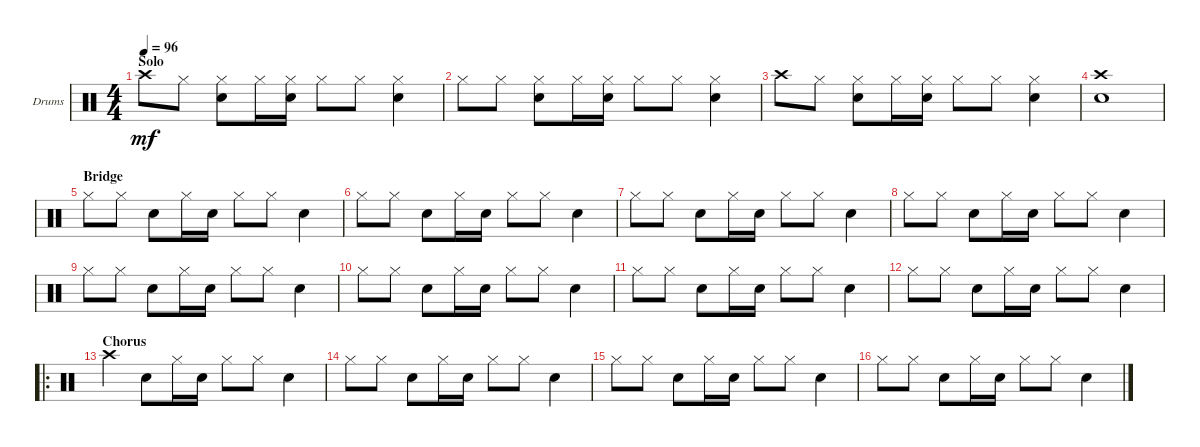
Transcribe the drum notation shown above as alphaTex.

\bracketExtendMode groupsimilarinstruments
\firstSystemTrackNameOrientation horizontal
\otherSystemsTrackNameOrientation horizontal
\track ("Drumkit" "Drums") {instrument percussion}
\staff {score}
\articulation defaults
\ts (4 4)
\section ("" "Solo")
\tempo 96
\clef neutral
\ks c "Crash high (hit)".8{dy mf} "Hi-Hat (closed)".8
("Snare (hit) 2" "Hi-Hat (closed)").8 "Hi-Hat (closed)".16 ("Snare (hit) 2" "Hi-Hat (closed)").16{beam split} "Hi-Hat (closed)".8{beam merge} "Hi-Hat (closed)".8 ("Snare (hit) 2" "Hi-Hat (closed)").4 |
"Hi-Hat (closed)".8 "Hi-Hat (closed)".8 ("Snare (hit) 2" "Hi-Hat (closed)").8 "Hi-Hat (closed)".16 ("Snare (hit) 2" "Hi-Hat (closed)").16{beam split} "Hi-Hat (closed)".8{beam merge} "Hi-Hat (closed)".8 ("Snare (hit) 2" "Hi-Hat (closed)").4 |
"Crash high (hit)".8 "Hi-Hat (closed)".8 ("Snare (hit) 2" "Hi-Hat (closed)").8 "Hi-Hat (closed)".16 ("Snare (hit) 2" "Hi-Hat (closed)").16{beam split} "Hi-Hat (closed)".8{beam merge} "Hi-Hat (closed)".8 ("Snare (hit) 2" "Hi-Hat (closed)").4 |
("Crash high (hit)" "Snare (hit) 2").1 |
\section ("" "Bridge")
"Hi-Hat (closed)".8 "Hi-Hat (closed)".8 "Snare (hit) 2".8 "Hi-Hat (closed)".16 "Snare (hit) 2".16{beam split} "Hi-Hat (closed)".8{beam merge} "Hi-Hat (closed)".8 "Snare (hit) 2".4 |
"Hi-Hat (closed)".8 "Hi-Hat (closed)".8 "Snare (hit) 2".8 "Hi-Hat (closed)".16 "Snare (hit) 2".16{beam split} "Hi-Hat (closed)".8{beam merge} "Hi-Hat (closed)".8 "Snare (hit) 2".4 |
"Hi-Hat (closed)".8 "Hi-Hat (closed)".8 "Snare (hit) 2".8 "Hi-Hat (closed)".16 "Snare (hit) 2".16{beam split} "Hi-Hat (closed)".8{beam merge} "Hi-Hat (closed)".8 "Snare (hit) 2".4 |
"Hi-Hat (closed)".8 "Hi-Hat (closed)".8 "Snare (hit) 2".8 "Hi-Hat (closed)".16 "Snare (hit) 2".16{beam split} "Hi-Hat (closed)".8{beam merge} "Hi-Hat (closed)".8 "Snare (hit) 2".4 |
"Hi-Hat (closed)".8 "Hi-Hat (closed)".8 "Snare (hit) 2".8 "Hi-Hat (closed)".16 "Snare (hit) 2".16{beam split} "Hi-Hat (closed)".8{beam merge} "Hi-Hat (closed)".8 "Snare (hit) 2".4 |
"Hi-Hat (closed)".8 "Hi-Hat (closed)".8 "Snare (hit) 2".8 "Hi-Hat (closed)".16 "Snare (hit) 2".16{beam split} "Hi-Hat (closed)".8{beam merge} "Hi-Hat (closed)".8 "Snare (hit) 2".4 |
"Hi-Hat (closed)".8 "Hi-Hat (closed)".8 "Snare (hit) 2".8 "Hi-Hat (closed)".16 "Snare (hit) 2".16{beam split} "Hi-Hat (closed)".8{beam merge} "Hi-Hat (closed)".8 "Snare (hit) 2".4 |
"Hi-Hat (closed)".8 "Hi-Hat (closed)".8 "Snare (hit) 2".8 "Hi-Hat (closed)".16 "Snare (hit) 2".16{beam split} "Hi-Hat (closed)".8{beam merge} "Hi-Hat (closed)".8 "Snare (hit) 2".4 |
\ro
\section ("" "Chorus")
"Crash high (hit)".4 "Snare (hit) 2".8 "Hi-Hat (closed)".16 "Snare (hit) 2".16{beam split} "Hi-Hat (closed)".8{beam merge} "Hi-Hat (closed)".8 "Snare (hit) 2".4 |
"Hi-Hat (closed)".8 "Hi-Hat (closed)".8 "Snare (hit) 2".8 "Hi-Hat (closed)".16 "Snare (hit) 2".16{beam split} "Hi-Hat (closed)".8{beam merge} "Hi-Hat (closed)".8 "Snare (hit) 2".4 |
"Hi-Hat (closed)".8 "Hi-Hat (closed)".8 "Snare (hit) 2".8 "Hi-Hat (closed)".16 "Snare (hit) 2".16{beam split} "Hi-Hat (closed)".8{beam merge} "Hi-Hat (closed)".8 "Snare (hit) 2".4 |
"Hi-Hat (closed)".8 "Hi-Hat (closed)".8 "Snare (hit) 2".8 "Hi-Hat (closed)".16 "Snare (hit) 2".16{beam split} "Hi-Hat (closed)".8{beam merge} "Hi-Hat (closed)".8 "Snare (hit) 2".4
